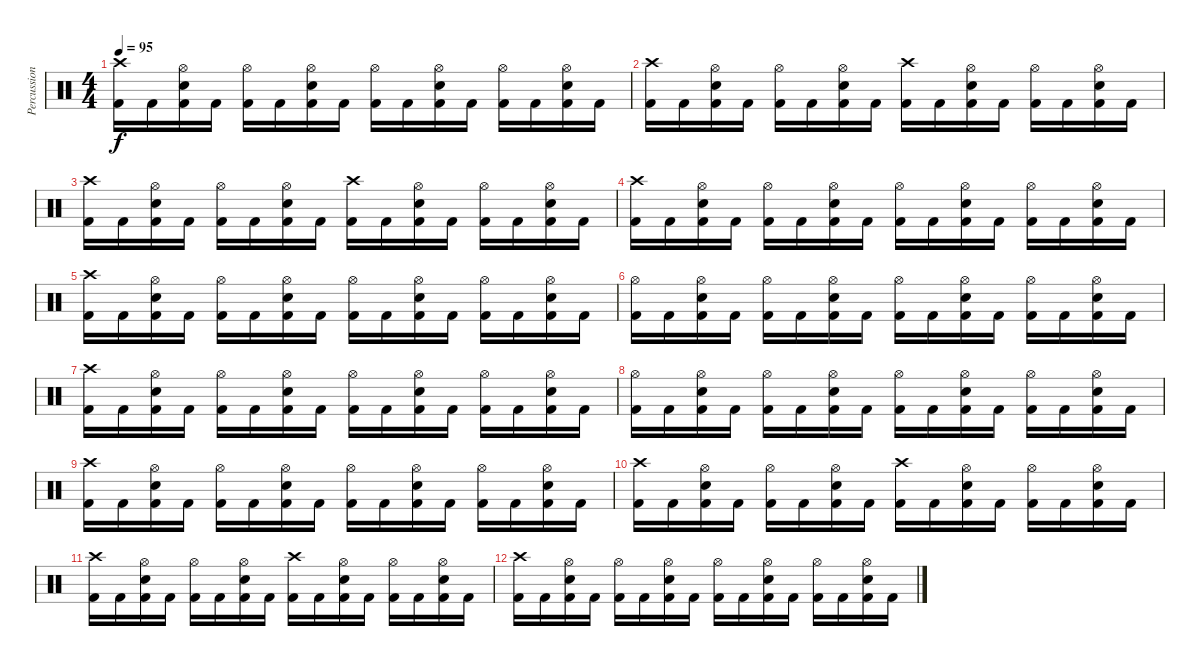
\track ("Percussion" "Percussion") {instrument percussion}
\staff {score}
\articulation defaults
\ts (4 4)
\tempo 95
\clef neutral
\ks c
("Crash high (hit)" "Kick (hit) 2").16{dy f} "Kick (hit) 2".16 ("Hi-Hat (open)" "Electric Snare (hit)" "Kick (hit) 2").16 "Kick (hit) 2".16 ("Hi-Hat (open)" "Kick (hit) 2").16 "Kick (hit) 2".16 ("Hi-Hat (open)" "Electric Snare (hit)" "Kick (hit) 2").16 "Kick (hit) 2".16 ("Hi-Hat (open)" "Kick (hit) 2").16 "Kick (hit) 2".16 ("Hi-Hat (open)" "Electric Snare (hit)" "Kick (hit) 2").16 "Kick (hit) 2".16 ("Hi-Hat (open)" "Kick (hit) 2").16 "Kick (hit) 2".16 ("Hi-Hat (open)" "Electric Snare (hit)" "Kick (hit) 2").16 "Kick (hit) 2".16 |
("Crash high (hit)" "Kick (hit) 2").16 "Kick (hit) 2".16 ("Hi-Hat (open)" "Electric Snare (hit)" "Kick (hit) 2").16 "Kick (hit) 2".16 ("Hi-Hat (open)" "Kick (hit) 2").16 "Kick (hit) 2".16 ("Hi-Hat (open)" "Electric Snare (hit)" "Kick (hit) 2").16 "Kick (hit) 2".16 ("Crash high (hit)" "Kick (hit) 2").16 "Kick (hit) 2".16 ("Hi-Hat (open)" "Electric Snare (hit)" "Kick (hit) 2").16 "Kick (hit) 2".16 ("Hi-Hat (open)" "Kick (hit) 2").16 "Kick (hit) 2".16 ("Hi-Hat (open)" "Electric Snare (hit)" "Kick (hit) 2").16 "Kick (hit) 2".16 |
("Crash high (hit)" "Kick (hit) 2").16 "Kick (hit) 2".16 ("Hi-Hat (open)" "Electric Snare (hit)" "Kick (hit) 2").16 "Kick (hit) 2".16 ("Hi-Hat (open)" "Kick (hit) 2").16 "Kick (hit) 2".16 ("Hi-Hat (open)" "Electric Snare (hit)" "Kick (hit) 2").16 "Kick (hit) 2".16 ("Crash high (hit)" "Kick (hit) 2").16 "Kick (hit) 2".16 ("Hi-Hat (open)" "Electric Snare (hit)" "Kick (hit) 2").16 "Kick (hit) 2".16 ("Hi-Hat (open)" "Kick (hit) 2").16 "Kick (hit) 2".16 ("Hi-Hat (open)" "Electric Snare (hit)" "Kick (hit) 2").16 "Kick (hit) 2".16 |
("Crash high (hit)" "Kick (hit) 2").16 "Kick (hit) 2".16 ("Hi-Hat (open)" "Electric Snare (hit)" "Kick (hit) 2").16 "Kick (hit) 2".16 ("Hi-Hat (open)" "Kick (hit) 2").16 "Kick (hit) 2".16 ("Hi-Hat (open)" "Electric Snare (hit)" "Kick (hit) 2").16 "Kick (hit) 2".16 ("Hi-Hat (open)" "Kick (hit) 2").16 "Kick (hit) 2".16 ("Hi-Hat (open)" "Electric Snare (hit)" "Kick (hit) 2").16 "Kick (hit) 2".16 ("Hi-Hat (open)" "Kick (hit) 2").16 "Kick (hit) 2".16 ("Hi-Hat (open)" "Electric Snare (hit)" "Kick (hit) 2").16 "Kick (hit) 2".16 |
("Crash high (hit)" "Kick (hit) 2").16 "Kick (hit) 2".16 ("Hi-Hat (open)" "Electric Snare (hit)" "Kick (hit) 2").16 "Kick (hit) 2".16 ("Hi-Hat (open)" "Kick (hit) 2").16 "Kick (hit) 2".16 ("Hi-Hat (open)" "Electric Snare (hit)" "Kick (hit) 2").16 "Kick (hit) 2".16 ("Hi-Hat (open)" "Kick (hit) 2").16 "Kick (hit) 2".16 ("Hi-Hat (open)" "Electric Snare (hit)" "Kick (hit) 2").16 "Kick (hit) 2".16 ("Hi-Hat (open)" "Kick (hit) 2").16 "Kick (hit) 2".16 ("Hi-Hat (open)" "Electric Snare (hit)" "Kick (hit) 2").16 "Kick (hit) 2".16 |
("Hi-Hat (open)" "Kick (hit) 2").16 "Kick (hit) 2".16 ("Hi-Hat (open)" "Electric Snare (hit)" "Kick (hit) 2").16 "Kick (hit) 2".16 ("Hi-Hat (open)" "Kick (hit) 2").16 "Kick (hit) 2".16 ("Hi-Hat (open)" "Electric Snare (hit)" "Kick (hit) 2").16 "Kick (hit) 2".16 ("Hi-Hat (open)" "Kick (hit) 2").16 "Kick (hit) 2".16 ("Hi-Hat (open)" "Electric Snare (hit)" "Kick (hit) 2").16 "Kick (hit) 2".16 ("Hi-Hat (open)" "Kick (hit) 2").16 "Kick (hit) 2".16 ("Hi-Hat (open)" "Electric Snare (hit)" "Kick (hit) 2").16 "Kick (hit) 2".16 |
("Crash high (hit)" "Kick (hit) 2").16 "Kick (hit) 2".16 ("Hi-Hat (open)" "Electric Snare (hit)" "Kick (hit) 2").16 "Kick (hit) 2".16 ("Hi-Hat (open)" "Kick (hit) 2").16 "Kick (hit) 2".16 ("Hi-Hat (open)" "Electric Snare (hit)" "Kick (hit) 2").16 "Kick (hit) 2".16 ("Hi-Hat (open)" "Kick (hit) 2").16 "Kick (hit) 2".16 ("Hi-Hat (open)" "Electric Snare (hit)" "Kick (hit) 2").16 "Kick (hit) 2".16 ("Hi-Hat (open)" "Kick (hit) 2").16 "Kick (hit) 2".16 ("Hi-Hat (open)" "Electric Snare (hit)" "Kick (hit) 2").16 "Kick (hit) 2".16 |
("Hi-Hat (open)" "Kick (hit) 2").16 "Kick (hit) 2".16 ("Hi-Hat (open)" "Electric Snare (hit)" "Kick (hit) 2").16 "Kick (hit) 2".16 ("Hi-Hat (open)" "Kick (hit) 2").16 "Kick (hit) 2".16 ("Hi-Hat (open)" "Electric Snare (hit)" "Kick (hit) 2").16 "Kick (hit) 2".16 ("Hi-Hat (open)" "Kick (hit) 2").16 "Kick (hit) 2".16 ("Hi-Hat (open)" "Electric Snare (hit)" "Kick (hit) 2").16 "Kick (hit) 2".16 ("Hi-Hat (open)" "Kick (hit) 2").16 "Kick (hit) 2".16 ("Hi-Hat (open)" "Electric Snare (hit)" "Kick (hit) 2").16 "Kick (hit) 2".16 |
("Crash high (hit)" "Kick (hit) 2").16 "Kick (hit) 2".16 ("Hi-Hat (open)" "Electric Snare (hit)" "Kick (hit) 2").16 "Kick (hit) 2".16 ("Hi-Hat (open)" "Kick (hit) 2").16 "Kick (hit) 2".16 ("Hi-Hat (open)" "Electric Snare (hit)" "Kick (hit) 2").16 "Kick (hit) 2".16 ("Hi-Hat (open)" "Kick (hit) 2").16 "Kick (hit) 2".16 ("Hi-Hat (open)" "Electric Snare (hit)" "Kick (hit) 2").16 "Kick (hit) 2".16 ("Hi-Hat (open)" "Kick (hit) 2").16 "Kick (hit) 2".16 ("Hi-Hat (open)" "Electric Snare (hit)" "Kick (hit) 2").16 "Kick (hit) 2".16 |
("Crash high (hit)" "Kick (hit) 2").16 "Kick (hit) 2".16 ("Hi-Hat (open)" "Electric Snare (hit)" "Kick (hit) 2").16 "Kick (hit) 2".16 ("Hi-Hat (open)" "Kick (hit) 2").16 "Kick (hit) 2".16 ("Hi-Hat (open)" "Electric Snare (hit)" "Kick (hit) 2").16 "Kick (hit) 2".16 ("Crash high (hit)" "Kick (hit) 2").16 "Kick (hit) 2".16 ("Hi-Hat (open)" "Electric Snare (hit)" "Kick (hit) 2").16 "Kick (hit) 2".16 ("Hi-Hat (open)" "Kick (hit) 2").16 "Kick (hit) 2".16 ("Hi-Hat (open)" "Electric Snare (hit)" "Kick (hit) 2").16 "Kick (hit) 2".16 |
("Crash high (hit)" "Kick (hit) 2").16 "Kick (hit) 2".16 ("Hi-Hat (open)" "Electric Snare (hit)" "Kick (hit) 2").16 "Kick (hit) 2".16 ("Hi-Hat (open)" "Kick (hit) 2").16 "Kick (hit) 2".16 ("Hi-Hat (open)" "Electric Snare (hit)" "Kick (hit) 2").16 "Kick (hit) 2".16 ("Crash high (hit)" "Kick (hit) 2").16 "Kick (hit) 2".16 ("Hi-Hat (open)" "Electric Snare (hit)" "Kick (hit) 2").16 "Kick (hit) 2".16 ("Hi-Hat (open)" "Kick (hit) 2").16 "Kick (hit) 2".16 ("Hi-Hat (open)" "Electric Snare (hit)" "Kick (hit) 2").16 "Kick (hit) 2".16 |
("Crash high (hit)" "Kick (hit) 2").16 "Kick (hit) 2".16 ("Hi-Hat (open)" "Electric Snare (hit)" "Kick (hit) 2").16 "Kick (hit) 2".16 ("Hi-Hat (open)" "Kick (hit) 2").16 "Kick (hit) 2".16 ("Hi-Hat (open)" "Electric Snare (hit)" "Kick (hit) 2").16 "Kick (hit) 2".16 ("Hi-Hat (open)" "Kick (hit) 2").16 "Kick (hit) 2".16 ("Hi-Hat (open)" "Electric Snare (hit)" "Kick (hit) 2").16 "Kick (hit) 2".16 ("Hi-Hat (open)" "Kick (hit) 2").16 "Kick (hit) 2".16 ("Hi-Hat (open)" "Electric Snare (hit)" "Kick (hit) 2").16 "Kick (hit) 2".16
